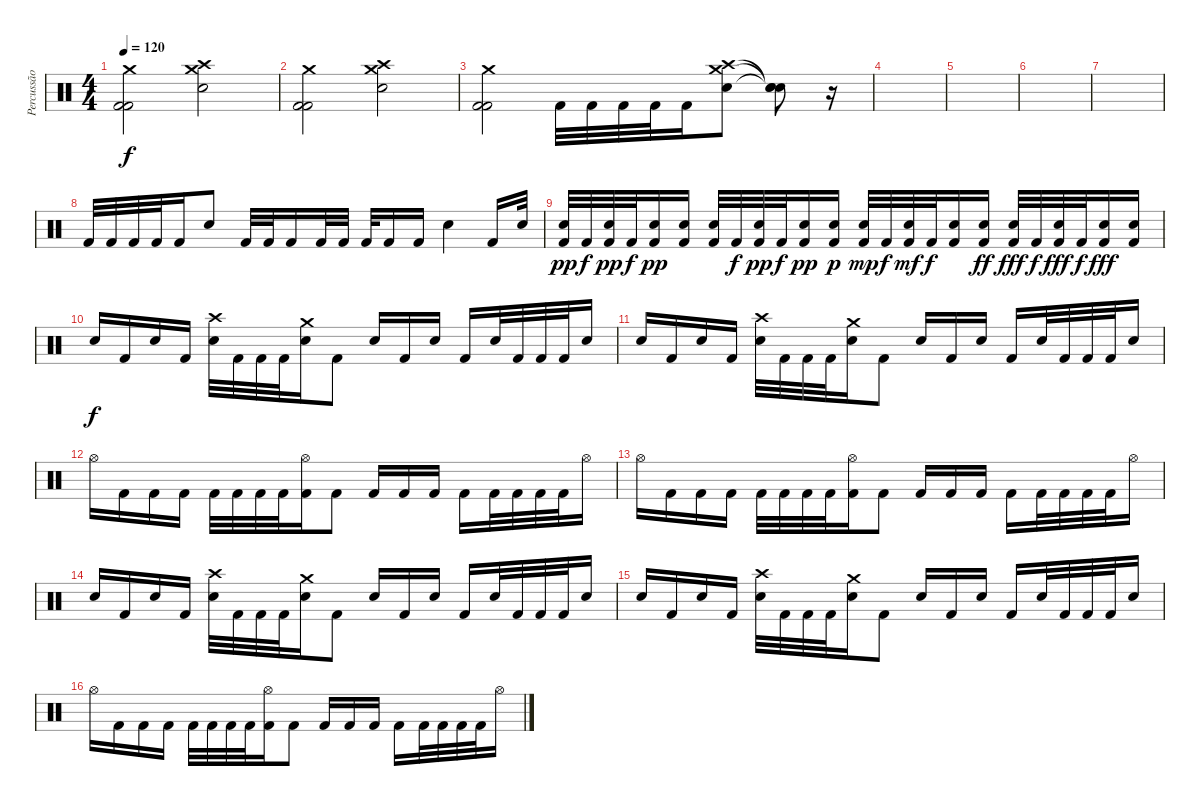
\track ("Percussão" "Percussão") {instrument percussion}
\staff {score}
\articulation defaults
\ts (4 4)
\tempo 120
\clef neutral
\ks c
("Kick (hit) 2" "Kick (hit) 2" "Crash medium (hit)").2{dy f} ("Crash high (hit)" "Crash medium (hit)" "Snare (hit) 2").2 |
("Kick (hit) 2" "Kick (hit) 2" "Crash medium (hit)").2 ("Crash high (hit)" "Crash medium (hit)" "Snare (hit) 2").2 |
("Kick (hit) 2" "Kick (hit) 2" "Crash medium (hit)").2 "Kick (hit) 2".32 "Kick (hit) 2".32 "Kick (hit) 2".32 "Kick (hit) 2".32 "Kick (hit) 2".16 ("Crash medium (hit)" "Crash high (hit)" "Snare (hit) 2").8 ("Snare (hit)"{t} "Snare (hit)"{t} "Snare (hit)"{t}).8 r.16 |
|
|
|
|
"Kick (hit) 2".32 "Kick (hit) 2".32 "Kick (hit) 2".32 "Kick (hit) 2".32 "Kick (hit) 2".16 "Snare (hit) 2".8 "Kick (hit) 2".32 "Kick (hit) 2".32 "Kick (hit) 2".16 "Kick (hit) 2".32 "Kick (hit) 2".32 "Kick (hit) 2".32 "Kick (hit) 2".16 "Kick (hit) 2".16 "Snare (hit) 2".4 "Kick (hit) 2".16 "Snare (hit) 2".32 |
("Snare (hit) 2" "Kick (hit) 2").32{dy pp} "Kick (hit) 2".32{dy f} ("Snare (hit) 2" "Kick (hit) 2").32{dy pp} "Kick (hit) 2".32{dy f} ("Snare (hit) 2" "Kick (hit) 2").16{dy pp} ("Snare (hit) 2" "Kick (hit) 2").16 ("Snare (hit) 2" "Kick (hit) 2").32 "Kick (hit) 2".32{dy f} ("Snare (hit) 2" "Kick (hit) 2").32{dy pp} "Kick (hit) 2".32{dy f} ("Snare (hit) 2" "Kick (hit) 2").16{dy pp} ("Snare (hit) 2" "Kick (hit) 2").16{dy p} ("Snare (hit) 2" "Kick (hit) 2").32{dy mp} "Kick (hit) 2".32{dy f} ("Snare (hit) 2" "Kick (hit) 2").32{dy mf} "Kick (hit) 2".32{dy f} ("Snare (hit) 2" "Kick (hit) 2").16 ("Snare (hit) 2" "Kick (hit) 2").16{dy ff} ("Snare (hit) 2" "Kick (hit) 2").32{dy fff} "Kick (hit) 2".32{dy f} ("Snare (hit) 2" "Kick (hit) 2").32{dy fff} "Kick (hit) 2".32{dy f} ("Snare (hit) 2" "Kick (hit) 2").16{dy fff} ("Snare (hit) 2" "Kick (hit) 2").16 |
"Snare (hit) 2".16{dy f} "Kick (hit) 2".16 "Snare (hit) 2".16 "Kick (hit) 2".16 ("Crash high (hit)" "Snare (hit) 2").32 "Kick (hit) 2".32 "Kick (hit) 2".32 "Kick (hit) 2".32 ("Crash medium (hit)" "Snare (hit) 2").16 "Kick (hit) 2".8 "Snare (hit) 2".16 "Kick (hit) 2".16 "Snare (hit) 2".16 "Kick (hit) 2".16 "Snare (hit) 2".32 "Kick (hit) 2".32 "Kick (hit) 2".32 "Kick (hit) 2".32 "Snare (hit) 2".16 |
"Snare (hit) 2".16 "Kick (hit) 2".16 "Snare (hit) 2".16 "Kick (hit) 2".16 ("Crash high (hit)" "Snare (hit) 2").32 "Kick (hit) 2".32 "Kick (hit) 2".32 "Kick (hit) 2".32 ("Crash medium (hit)" "Snare (hit) 2").16 "Kick (hit) 2".8 "Snare (hit) 2".16 "Kick (hit) 2".16 "Snare (hit) 2".16 "Kick (hit) 2".16 "Snare (hit) 2".32 "Kick (hit) 2".32 "Kick (hit) 2".32 "Kick (hit) 2".32 "Snare (hit) 2".16 |
"Hi-Hat (open)".16 "Kick (hit) 2".16 "Kick (hit) 2".16 "Kick (hit) 2".16 "Kick (hit) 2".32 "Kick (hit) 2".32 "Kick (hit) 2".32 "Kick (hit) 2".32 ("Kick (hit) 2" "Hi-Hat (open)").16 "Kick (hit) 2".8 "Kick (hit) 2".16 "Kick (hit) 2".16 "Kick (hit) 2".16 "Kick (hit) 2".16 "Kick (hit) 2".32 "Kick (hit) 2".32 "Kick (hit) 2".32 "Kick (hit) 2".32 "Hi-Hat (open)".16 |
"Hi-Hat (open)".16 "Kick (hit) 2".16 "Kick (hit) 2".16 "Kick (hit) 2".16 "Kick (hit) 2".32 "Kick (hit) 2".32 "Kick (hit) 2".32 "Kick (hit) 2".32 ("Kick (hit) 2" "Hi-Hat (open)").16 "Kick (hit) 2".8 "Kick (hit) 2".16 "Kick (hit) 2".16 "Kick (hit) 2".16 "Kick (hit) 2".16 "Kick (hit) 2".32 "Kick (hit) 2".32 "Kick (hit) 2".32 "Kick (hit) 2".32 "Hi-Hat (open)".16 |
"Snare (hit) 2".16 "Kick (hit) 2".16 "Snare (hit) 2".16 "Kick (hit) 2".16 ("Crash high (hit)" "Snare (hit) 2").32 "Kick (hit) 2".32 "Kick (hit) 2".32 "Kick (hit) 2".32 ("Crash medium (hit)" "Snare (hit) 2").16 "Kick (hit) 2".8 "Snare (hit) 2".16 "Kick (hit) 2".16 "Snare (hit) 2".16 "Kick (hit) 2".16 "Snare (hit) 2".32 "Kick (hit) 2".32 "Kick (hit) 2".32 "Kick (hit) 2".32 "Snare (hit) 2".16 |
"Snare (hit) 2".16 "Kick (hit) 2".16 "Snare (hit) 2".16 "Kick (hit) 2".16 ("Crash high (hit)" "Snare (hit) 2").32 "Kick (hit) 2".32 "Kick (hit) 2".32 "Kick (hit) 2".32 ("Crash medium (hit)" "Snare (hit) 2").16 "Kick (hit) 2".8 "Snare (hit) 2".16 "Kick (hit) 2".16 "Snare (hit) 2".16 "Kick (hit) 2".16 "Snare (hit) 2".32 "Kick (hit) 2".32 "Kick (hit) 2".32 "Kick (hit) 2".32 "Snare (hit) 2".16 |
"Hi-Hat (open)".16 "Kick (hit) 2".16 "Kick (hit) 2".16 "Kick (hit) 2".16 "Kick (hit) 2".32 "Kick (hit) 2".32 "Kick (hit) 2".32 "Kick (hit) 2".32 ("Kick (hit) 2" "Hi-Hat (open)").16 "Kick (hit) 2".8 "Kick (hit) 2".16 "Kick (hit) 2".16 "Kick (hit) 2".16 "Kick (hit) 2".16 "Kick (hit) 2".32 "Kick (hit) 2".32 "Kick (hit) 2".32 "Kick (hit) 2".32 "Hi-Hat (open)".16
